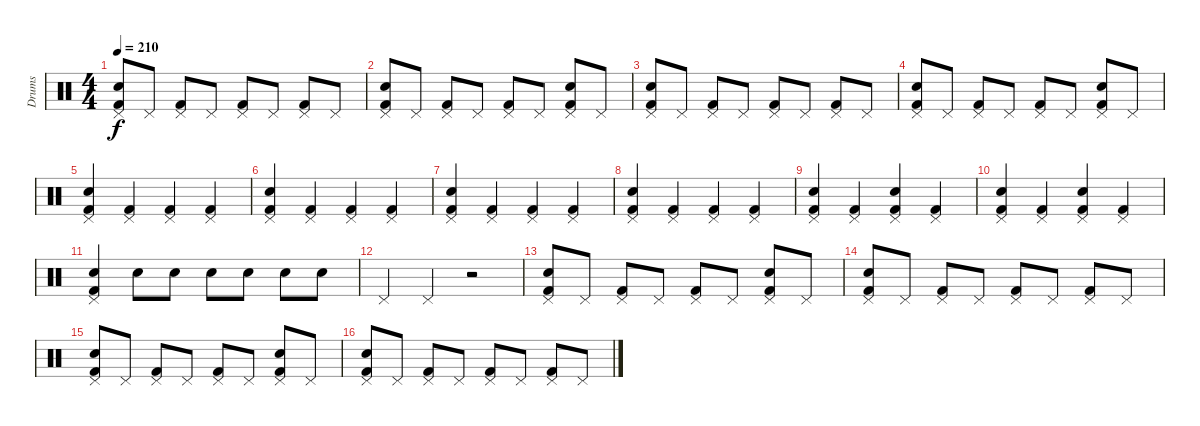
\track ("Drums" "Drums") {instrument percussion}
\staff {score}
\articulation defaults
\ts (4 4)
\tempo 210
\clef neutral
\ks c
("Kick (hit) 2" "Pedal Hi-Hat (hit)" "Snare (hit) 2").8{dy f} "Pedal Hi-Hat (hit)".8 ("Kick (hit) 2" "Pedal Hi-Hat (hit)").8 "Pedal Hi-Hat (hit)".8 ("Kick (hit) 2" "Pedal Hi-Hat (hit)").8 "Pedal Hi-Hat (hit)".8 ("Kick (hit) 2" "Pedal Hi-Hat (hit)").8 "Pedal Hi-Hat (hit)".8 |
("Kick (hit) 2" "Pedal Hi-Hat (hit)" "Snare (hit) 2").8 "Pedal Hi-Hat (hit)".8 ("Kick (hit) 2" "Pedal Hi-Hat (hit)").8 "Pedal Hi-Hat (hit)".8 ("Kick (hit) 2" "Pedal Hi-Hat (hit)").8 "Pedal Hi-Hat (hit)".8 ("Kick (hit) 2" "Pedal Hi-Hat (hit)" "Snare (hit) 2").8 "Pedal Hi-Hat (hit)".8 |
("Kick (hit) 2" "Pedal Hi-Hat (hit)" "Snare (hit) 2").8 "Pedal Hi-Hat (hit)".8 ("Kick (hit) 2" "Pedal Hi-Hat (hit)").8 "Pedal Hi-Hat (hit)".8 ("Kick (hit) 2" "Pedal Hi-Hat (hit)").8 "Pedal Hi-Hat (hit)".8 ("Kick (hit) 2" "Pedal Hi-Hat (hit)").8 "Pedal Hi-Hat (hit)".8 |
("Kick (hit) 2" "Pedal Hi-Hat (hit)" "Snare (hit) 2").8 "Pedal Hi-Hat (hit)".8 ("Kick (hit) 2" "Pedal Hi-Hat (hit)").8 "Pedal Hi-Hat (hit)".8 ("Kick (hit) 2" "Pedal Hi-Hat (hit)").8 "Pedal Hi-Hat (hit)".8 ("Kick (hit) 2" "Pedal Hi-Hat (hit)" "Snare (hit) 2").8 "Pedal Hi-Hat (hit)".8 |
("Kick (hit) 2" "Pedal Hi-Hat (hit)" "Snare (hit) 2").4 ("Kick (hit) 2" "Pedal Hi-Hat (hit)").4 ("Kick (hit) 2" "Pedal Hi-Hat (hit)").4 ("Kick (hit) 2" "Pedal Hi-Hat (hit)").4 |
("Kick (hit) 2" "Pedal Hi-Hat (hit)" "Snare (hit) 2").4 ("Kick (hit) 2" "Pedal Hi-Hat (hit)").4 ("Kick (hit) 2" "Pedal Hi-Hat (hit)").4 ("Kick (hit) 2" "Pedal Hi-Hat (hit)").4 |
("Kick (hit) 2" "Pedal Hi-Hat (hit)" "Snare (hit) 2").4 ("Kick (hit) 2" "Pedal Hi-Hat (hit)").4 ("Kick (hit) 2" "Pedal Hi-Hat (hit)").4 ("Kick (hit) 2" "Pedal Hi-Hat (hit)").4 |
("Kick (hit) 2" "Pedal Hi-Hat (hit)" "Snare (hit) 2").4 ("Kick (hit) 2" "Pedal Hi-Hat (hit)").4 ("Kick (hit) 2" "Pedal Hi-Hat (hit)").4 ("Kick (hit) 2" "Pedal Hi-Hat (hit)").4 |
("Kick (hit) 2" "Pedal Hi-Hat (hit)" "Snare (hit) 2").4 ("Kick (hit) 2" "Pedal Hi-Hat (hit)").4 ("Kick (hit) 2" "Pedal Hi-Hat (hit)" "Snare (hit) 2").4 ("Kick (hit) 2" "Pedal Hi-Hat (hit)").4 |
("Kick (hit) 2" "Pedal Hi-Hat (hit)" "Snare (hit) 2").4 ("Kick (hit) 2" "Pedal Hi-Hat (hit)").4 ("Kick (hit) 2" "Pedal Hi-Hat (hit)" "Snare (hit) 2").4 ("Kick (hit) 2" "Pedal Hi-Hat (hit)").4 |
("Kick (hit) 2" "Pedal Hi-Hat (hit)" "Snare (hit) 2").4 "Snare (hit) 2".8 "Snare (hit) 2".8 "Snare (hit) 2".8 "Snare (hit) 2".8 "Snare (hit) 2".8 "Snare (hit) 2".8 |
"Pedal Hi-Hat (hit)".4 "Pedal Hi-Hat (hit)".4 r.2 |
("Kick (hit) 2" "Pedal Hi-Hat (hit)" "Snare (hit) 2").8 "Pedal Hi-Hat (hit)".8 ("Kick (hit) 2" "Pedal Hi-Hat (hit)").8 "Pedal Hi-Hat (hit)".8 ("Kick (hit) 2" "Pedal Hi-Hat (hit)").8 "Pedal Hi-Hat (hit)".8 ("Kick (hit) 2" "Pedal Hi-Hat (hit)" "Snare (hit) 2").8 "Pedal Hi-Hat (hit)".8 |
("Kick (hit) 2" "Pedal Hi-Hat (hit)" "Snare (hit) 2").8 "Pedal Hi-Hat (hit)".8 ("Kick (hit) 2" "Pedal Hi-Hat (hit)").8 "Pedal Hi-Hat (hit)".8 ("Kick (hit) 2" "Pedal Hi-Hat (hit)").8 "Pedal Hi-Hat (hit)".8 ("Kick (hit) 2" "Pedal Hi-Hat (hit)").8 "Pedal Hi-Hat (hit)".8 |
("Kick (hit) 2" "Pedal Hi-Hat (hit)" "Snare (hit) 2").8 "Pedal Hi-Hat (hit)".8 ("Kick (hit) 2" "Pedal Hi-Hat (hit)").8 "Pedal Hi-Hat (hit)".8 ("Kick (hit) 2" "Pedal Hi-Hat (hit)").8 "Pedal Hi-Hat (hit)".8 ("Kick (hit) 2" "Pedal Hi-Hat (hit)" "Snare (hit) 2").8 "Pedal Hi-Hat (hit)".8 |
("Kick (hit) 2" "Pedal Hi-Hat (hit)" "Snare (hit) 2").8 "Pedal Hi-Hat (hit)".8 ("Kick (hit) 2" "Pedal Hi-Hat (hit)").8 "Pedal Hi-Hat (hit)".8 ("Kick (hit) 2" "Pedal Hi-Hat (hit)").8 "Pedal Hi-Hat (hit)".8 ("Kick (hit) 2" "Pedal Hi-Hat (hit)").8 "Pedal Hi-Hat (hit)".8
